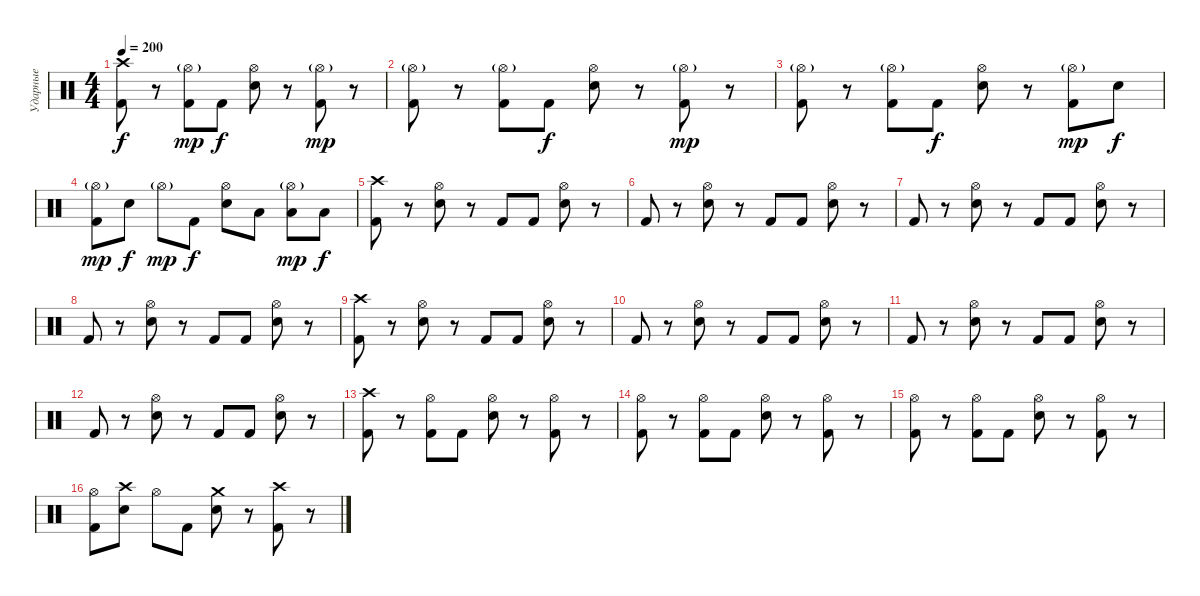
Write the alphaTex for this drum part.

\track ("Ударные" "Ударные") {instrument percussion}
\staff {score}
\articulation defaults
\ts (4 4)
\tempo 200
\clef neutral
\ks c
("Crash high (hit)" "Kick (hit) 2").8{dy f} r.8 ("Hi-Hat (open)"{g} "Kick (hit) 2").8{dy mp} "Kick (hit) 2".8{dy f} ("Hi-Hat (open)" "Electric Snare (hit)").8 r.8 ("Hi-Hat (open)"{g} "Kick (hit) 2").8{dy mp} r.8 |
("Hi-Hat (open)"{g} "Kick (hit) 2").8 r.8 ("Hi-Hat (open)"{g} "Kick (hit) 2").8 "Kick (hit) 2".8{dy f} ("Hi-Hat (open)" "Electric Snare (hit)").8 r.8 ("Hi-Hat (open)"{g} "Kick (hit) 2").8{dy mp} r.8 |
("Hi-Hat (open)"{g} "Kick (hit) 2").8 r.8 ("Hi-Hat (open)"{g} "Kick (hit) 2").8 "Kick (hit) 2".8{dy f} ("Hi-Hat (open)" "Electric Snare (hit)").8 r.8 ("Hi-Hat (open)"{g} "Kick (hit) 2").8{dy mp} "Electric Snare (hit)".8{dy f} |
("Hi-Hat (open)"{g} "Kick (hit) 2").8{dy mp} "Electric Snare (hit)".8{dy f} "Hi-Hat (open)"{g}.8{dy mp} "Kick (hit) 2".8{dy f} ("Hi-Hat (open)" "Electric Snare (hit)").8 "Low Tom (hit)".8 ("Hi-Hat (open)"{g} "Low Tom (hit)").8{dy mp} "Low Tom (hit)".8{dy f} |
("Crash high (hit)" "Kick (hit) 2").8 r.8 ("Hi-Hat (open)" "Electric Snare (hit)").8 r.8 "Kick (hit) 2".8 "Kick (hit) 2".8 ("Hi-Hat (open)" "Electric Snare (hit)").8 r.8 |
"Kick (hit) 2".8 r.8 ("Hi-Hat (open)" "Electric Snare (hit)").8 r.8 "Kick (hit) 2".8 "Kick (hit) 2".8 ("Hi-Hat (open)" "Electric Snare (hit)").8 r.8 |
"Kick (hit) 2".8 r.8 ("Hi-Hat (open)" "Electric Snare (hit)").8 r.8 "Kick (hit) 2".8 "Kick (hit) 2".8 ("Hi-Hat (open)" "Electric Snare (hit)").8 r.8 |
"Kick (hit) 2".8 r.8 ("Hi-Hat (open)" "Electric Snare (hit)").8 r.8 "Kick (hit) 2".8 "Kick (hit) 2".8 ("Hi-Hat (open)" "Electric Snare (hit)").8 r.8 |
("Crash high (hit)" "Kick (hit) 2").8 r.8 ("Hi-Hat (open)" "Electric Snare (hit)").8 r.8 "Kick (hit) 2".8 "Kick (hit) 2".8 ("Hi-Hat (open)" "Electric Snare (hit)").8 r.8 |
"Kick (hit) 2".8 r.8 ("Hi-Hat (open)" "Electric Snare (hit)").8 r.8 "Kick (hit) 2".8 "Kick (hit) 2".8 ("Hi-Hat (open)" "Electric Snare (hit)").8 r.8 |
"Kick (hit) 2".8 r.8 ("Hi-Hat (open)" "Electric Snare (hit)").8 r.8 "Kick (hit) 2".8 "Kick (hit) 2".8 ("Hi-Hat (open)" "Electric Snare (hit)").8 r.8 |
"Kick (hit) 2".8 r.8 ("Hi-Hat (open)" "Electric Snare (hit)").8 r.8 "Kick (hit) 2".8 "Kick (hit) 2".8 ("Hi-Hat (open)" "Electric Snare (hit)").8 r.8 |
("Crash high (hit)" "Kick (hit) 2").8 r.8 ("Hi-Hat (open)" "Kick (hit) 2").8 "Kick (hit) 2".8 ("Hi-Hat (open)" "Electric Snare (hit)").8 r.8 ("Hi-Hat (open)" "Kick (hit) 2").8 r.8 |
("Hi-Hat (open)" "Kick (hit) 2").8 r.8 ("Hi-Hat (open)" "Kick (hit) 2").8 "Kick (hit) 2".8 ("Hi-Hat (open)" "Electric Snare (hit)").8 r.8 ("Hi-Hat (open)" "Kick (hit) 2").8 r.8 |
("Hi-Hat (open)" "Kick (hit) 2").8 r.8 ("Hi-Hat (open)" "Kick (hit) 2").8 "Kick (hit) 2".8 ("Hi-Hat (open)" "Electric Snare (hit)").8 r.8 ("Hi-Hat (open)" "Kick (hit) 2").8 r.8 |
("Hi-Hat (open)" "Kick (hit) 2").8 ("Crash high (hit)" "Electric Snare (hit)").8 "Hi-Hat (open)".8 "Kick (hit) 2".8 ("Crash medium (hit)" "Electric Snare (hit)").8 r.8 ("Crash high (hit)" "Kick (hit) 2").8 r.8
